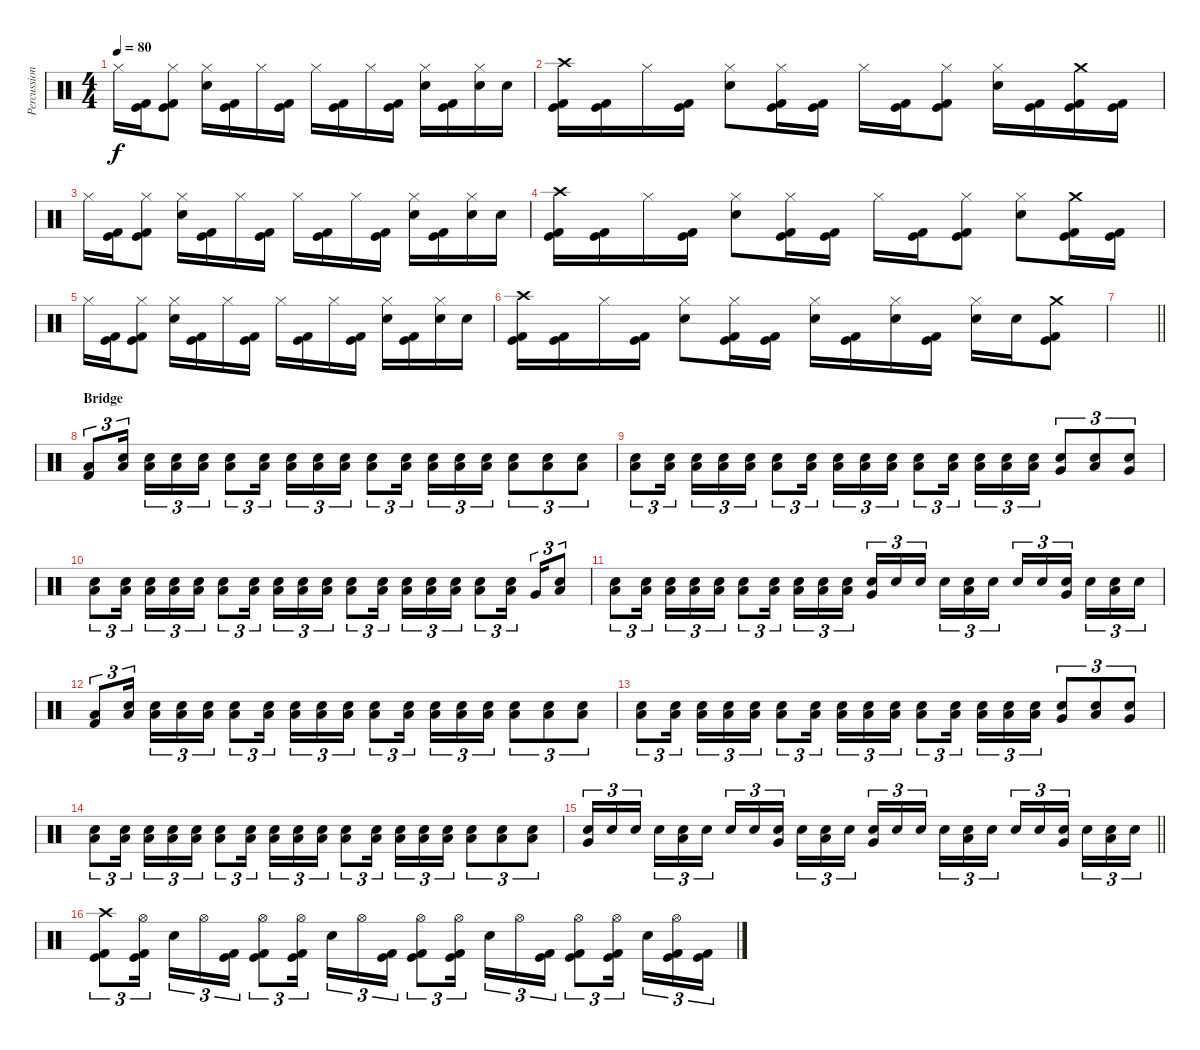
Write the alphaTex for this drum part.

\track ("Percussion" "Percussion") {instrument percussion}
\staff {score}
\articulation defaults
\ts (4 4)
\tempo 80
\clef neutral
\ks c "Hi-Hat (closed)".16{dy f}
("Kick (hit)" "Kick (hit) 2").16 ("Hi-Hat (closed)" "Kick (hit)" "Kick (hit) 2").8 ("Hi-Hat (closed)" "Electric Snare (hit)").16 ("Kick (hit)" "Kick (hit) 2").16 "Hi-Hat (closed)".16 ("Kick (hit)" "Kick (hit) 2").16 "Hi-Hat (closed)".16 ("Kick (hit)" "Kick (hit) 2").16 "Hi-Hat (closed)".16 ("Kick (hit)" "Kick (hit) 2").16 ("Hi-Hat (closed)" "Electric Snare (hit)").16 ("Kick (hit)" "Kick (hit) 2").16 ("Hi-Hat (closed)" "Electric Snare (hit)").16 "Electric Snare (hit)".16 |
("Crash high (hit)" "Kick (hit)" "Kick (hit) 2").16 ("Kick (hit)" "Kick (hit) 2").16 "Hi-Hat (closed)".16 ("Kick (hit)" "Kick (hit) 2").16 ("Hi-Hat (closed)" "Electric Snare (hit)").8 ("Hi-Hat (closed)" "Kick (hit)" "Kick (hit) 2").16 ("Kick (hit)" "Kick (hit) 2").16 "Hi-Hat (closed)".16 ("Kick (hit)" "Kick (hit) 2").16 ("Hi-Hat (closed)" "Kick (hit)" "Kick (hit) 2").8 ("Hi-Hat (closed)" "Electric Snare (hit)").16 ("Kick (hit)" "Kick (hit) 2").16 ("Crash medium (hit)" "Kick (hit)" "Kick (hit) 2").16 ("Kick (hit)" "Kick (hit) 2").16 |
"Hi-Hat (closed)".16 ("Kick (hit)" "Kick (hit) 2").16 ("Hi-Hat (closed)" "Kick (hit)" "Kick (hit) 2").8 ("Hi-Hat (closed)" "Electric Snare (hit)").16 ("Kick (hit)" "Kick (hit) 2").16 "Hi-Hat (closed)".16 ("Kick (hit)" "Kick (hit) 2").16 "Hi-Hat (closed)".16 ("Kick (hit)" "Kick (hit) 2").16 "Hi-Hat (closed)".16 ("Kick (hit)" "Kick (hit) 2").16 ("Hi-Hat (closed)" "Electric Snare (hit)").16 ("Kick (hit)" "Kick (hit) 2").16 ("Hi-Hat (closed)" "Electric Snare (hit)").16 "Electric Snare (hit)".16 |
("Crash high (hit)" "Kick (hit)" "Kick (hit) 2").16 ("Kick (hit)" "Kick (hit) 2").16 "Hi-Hat (closed)".16 ("Kick (hit)" "Kick (hit) 2").16 ("Hi-Hat (closed)" "Electric Snare (hit)").8 ("Hi-Hat (closed)" "Kick (hit)" "Kick (hit) 2").16 ("Kick (hit)" "Kick (hit) 2").16 "Hi-Hat (closed)".16 ("Kick (hit)" "Kick (hit) 2").16 ("Hi-Hat (closed)" "Kick (hit)" "Kick (hit) 2").8 ("Hi-Hat (closed)" "Electric Snare (hit)").8 ("Crash medium (hit)" "Kick (hit)" "Kick (hit) 2").16 ("Kick (hit)" "Kick (hit) 2").16 |
"Hi-Hat (closed)".16 ("Kick (hit)" "Kick (hit) 2").16 ("Hi-Hat (closed)" "Kick (hit)" "Kick (hit) 2").8 ("Hi-Hat (closed)" "Electric Snare (hit)").16 ("Kick (hit)" "Kick (hit) 2").16 "Hi-Hat (closed)".16 ("Kick (hit)" "Kick (hit) 2").16 "Hi-Hat (closed)".16 ("Kick (hit)" "Kick (hit) 2").16 "Hi-Hat (closed)".16 ("Kick (hit)" "Kick (hit) 2").16 ("Hi-Hat (closed)" "Electric Snare (hit)").16 ("Kick (hit)" "Kick (hit) 2").16 ("Hi-Hat (closed)" "Electric Snare (hit)").16 "Electric Snare (hit)".16 |
("Crash high (hit)" "Kick (hit)" "Kick (hit) 2").16 ("Kick (hit)" "Kick (hit) 2").16 "Hi-Hat (closed)".16 ("Kick (hit)" "Kick (hit) 2").16 ("Hi-Hat (closed)" "Electric Snare (hit)").8 ("Hi-Hat (closed)" "Kick (hit)" "Kick (hit) 2").16 ("Kick (hit)" "Kick (hit) 2").16 ("Hi-Hat (closed)" "Electric Snare (hit)").16 ("Kick (hit)" "Kick (hit) 2").16 ("Hi-Hat (closed)" "Electric Snare (hit)").16 ("Kick (hit)" "Kick (hit) 2").16 ("Hi-Hat (closed)" "Electric Snare (hit)").16 "Electric Snare (hit)".16 ("Crash medium (hit)" "Kick (hit)" "Kick (hit) 2").8 |
\barLineRight lightlight
|
\section ("" "Bridge")
("Low Floor Tom (hit)" "Kick (hit) 2").8{tu (3 2)} ("Electric Snare (hit)" "Low Floor Tom (hit)").16{tu (3 2) beam splitsecondary} ("Electric Snare (hit)" "Low Floor Tom (hit)").16{tu (3 2)} ("Electric Snare (hit)" "Low Floor Tom (hit)").16{tu (3 2)} ("Electric Snare (hit)" "Low Floor Tom (hit)").16{tu (3 2)} ("Electric Snare (hit)" "Low Floor Tom (hit)").8{tu (3 2)} ("Electric Snare (hit)" "Low Floor Tom (hit)").16{tu (3 2) beam splitsecondary} ("Electric Snare (hit)" "Low Floor Tom (hit)").16{tu (3 2)} ("Electric Snare (hit)" "Low Floor Tom (hit)").16{tu (3 2)} ("Electric Snare (hit)" "Low Floor Tom (hit)").16{tu (3 2)} ("Electric Snare (hit)" "Low Floor Tom (hit)").8{tu (3 2)} ("Electric Snare (hit)" "Low Floor Tom (hit)").16{tu (3 2) beam splitsecondary} ("Electric Snare (hit)" "Low Floor Tom (hit)").16{tu (3 2)} ("Electric Snare (hit)" "Low Floor Tom (hit)").16{tu (3 2)} ("Electric Snare (hit)" "Low Floor Tom (hit)").16{tu (3 2)} ("Low Tom (hit)" "Electric Snare (hit)").8{tu (3 2)} ("Electric Snare (hit)" "Low Floor Tom (hit)").8{tu (3 2)} ("Low Tom (hit)" "Electric Snare (hit)").8{tu (3 2)} |
("Low Tom (hit)" "Electric Snare (hit)").8{tu (3 2)} ("Electric Snare (hit)" "Low Floor Tom (hit)").16{tu (3 2) beam splitsecondary} ("Electric Snare (hit)" "Low Floor Tom (hit)").16{tu (3 2)} ("Electric Snare (hit)" "Low Floor Tom (hit)").16{tu (3 2)} ("Electric Snare (hit)" "Low Floor Tom (hit)").16{tu (3 2)} ("Electric Snare (hit)" "Low Floor Tom (hit)").8{tu (3 2)} ("Electric Snare (hit)" "Low Floor Tom (hit)").16{tu (3 2) beam splitsecondary} ("Electric Snare (hit)" "Low Floor Tom (hit)").16{tu (3 2)} ("Electric Snare (hit)" "Low Floor Tom (hit)").16{tu (3 2)} ("Electric Snare (hit)" "Low Floor Tom (hit)").16{tu (3 2)} ("Electric Snare (hit)" "Low Floor Tom (hit)").8{tu (3 2)} ("Electric Snare (hit)" "Low Floor Tom (hit)").16{tu (3 2) beam splitsecondary} ("Electric Snare (hit)" "Low Floor Tom (hit)").16{tu (3 2)} ("Electric Snare (hit)" "Low Floor Tom (hit)").16{tu (3 2)} ("Electric Snare (hit)" "Low Floor Tom (hit)").16{tu (3 2)} ("Very Low Tom (hit)" "Electric Snare (hit)").8{tu (3 2)} ("Low Tom (hit)" "Electric Snare (hit)").8{tu (3 2)} ("Very Low Tom (hit)" "Electric Snare (hit)").8{tu (3 2)} |
("Low Tom (hit)" "Electric Snare (hit)").8{tu (3 2)} ("Electric Snare (hit)" "Low Floor Tom (hit)").16{tu (3 2) beam splitsecondary} ("Electric Snare (hit)" "Low Floor Tom (hit)").16{tu (3 2)} ("Electric Snare (hit)" "Low Floor Tom (hit)").16{tu (3 2)} ("Electric Snare (hit)" "Low Floor Tom (hit)").16{tu (3 2)} ("Electric Snare (hit)" "Low Floor Tom (hit)").8{tu (3 2)} ("Electric Snare (hit)" "Low Floor Tom (hit)").16{tu (3 2) beam splitsecondary} ("Electric Snare (hit)" "Low Floor Tom (hit)").16{tu (3 2)} ("Electric Snare (hit)" "Low Floor Tom (hit)").16{tu (3 2)} ("Electric Snare (hit)" "Low Floor Tom (hit)").16{tu (3 2)} ("Electric Snare (hit)" "Low Floor Tom (hit)").8{tu (3 2)} ("Electric Snare (hit)" "Low Floor Tom (hit)").16{tu (3 2) beam splitsecondary} ("Electric Snare (hit)" "Low Floor Tom (hit)").16{tu (3 2)} ("Electric Snare (hit)" "Low Floor Tom (hit)").16{tu (3 2)} ("Electric Snare (hit)" "Low Floor Tom (hit)").16{tu (3 2)} ("Low Tom (hit)" "Electric Snare (hit)").8{tu (3 2)} ("Electric Snare (hit)" "Low Floor Tom (hit)").16{tu (3 2) beam splitsecondary} "Very Low Tom (hit)".16{tu (3 2)} ("Low Tom (hit)" "Electric Snare (hit)").8{tu (3 2)} |
("Electric Snare (hit)" "Low Floor Tom (hit)").8{tu (3 2)} ("Electric Snare (hit)" "Low Floor Tom (hit)").16{tu (3 2) beam splitsecondary} ("Electric Snare (hit)" "Low Floor Tom (hit)").16{tu (3 2)} ("Electric Snare (hit)" "Low Floor Tom (hit)").16{tu (3 2)} ("Electric Snare (hit)" "Low Floor Tom (hit)").16{tu (3 2)} ("Electric Snare (hit)" "Low Floor Tom (hit)").8{tu (3 2)} ("Electric Snare (hit)" "Low Floor Tom (hit)").16{tu (3 2) beam splitsecondary} ("Electric Snare (hit)" "Low Floor Tom (hit)").16{tu (3 2)} ("Electric Snare (hit)" "Low Floor Tom (hit)").16{tu (3 2)} ("Electric Snare (hit)" "Low Floor Tom (hit)").16{tu (3 2)} ("Very Low Tom (hit)" "Electric Snare (hit)").16{tu (3 2)} "Electric Snare (hit)".16{tu (3 2)} "Electric Snare (hit)".16{tu (3 2) beam splitsecondary} "Electric Snare (hit)".16{tu (3 2)} ("Low Tom (hit)" "Electric Snare (hit)").16{tu (3 2)} "Electric Snare (hit)".16{tu (3 2)} "Electric Snare (hit)".16{tu (3 2)} "Electric Snare (hit)".16{tu (3 2)} ("Very Low Tom (hit)" "Electric Snare (hit)").16{tu (3 2) beam splitsecondary} "Electric Snare (hit)".16{tu (3 2)} ("Low Tom (hit)" "Electric Snare (hit)").16{tu (3 2)} "Electric Snare (hit)".16{tu (3 2)} |
("Low Floor Tom (hit)" "Kick (hit) 2").8{tu (3 2)} ("Electric Snare (hit)" "Low Floor Tom (hit)").16{tu (3 2) beam splitsecondary} ("Electric Snare (hit)" "Low Floor Tom (hit)").16{tu (3 2)} ("Electric Snare (hit)" "Low Floor Tom (hit)").16{tu (3 2)} ("Electric Snare (hit)" "Low Floor Tom (hit)").16{tu (3 2)} ("Electric Snare (hit)" "Low Floor Tom (hit)").8{tu (3 2)} ("Electric Snare (hit)" "Low Floor Tom (hit)").16{tu (3 2) beam splitsecondary} ("Electric Snare (hit)" "Low Floor Tom (hit)").16{tu (3 2)} ("Electric Snare (hit)" "Low Floor Tom (hit)").16{tu (3 2)} ("Electric Snare (hit)" "Low Floor Tom (hit)").16{tu (3 2)} ("Electric Snare (hit)" "Low Floor Tom (hit)").8{tu (3 2)} ("Electric Snare (hit)" "Low Floor Tom (hit)").16{tu (3 2) beam splitsecondary} ("Electric Snare (hit)" "Low Floor Tom (hit)").16{tu (3 2)} ("Electric Snare (hit)" "Low Floor Tom (hit)").16{tu (3 2)} ("Electric Snare (hit)" "Low Floor Tom (hit)").16{tu (3 2)} ("Low Tom (hit)" "Electric Snare (hit)").8{tu (3 2)} ("Electric Snare (hit)" "Low Floor Tom (hit)").8{tu (3 2)} ("Low Tom (hit)" "Electric Snare (hit)").8{tu (3 2)} |
("Low Tom (hit)" "Electric Snare (hit)").8{tu (3 2)} ("Electric Snare (hit)" "Low Floor Tom (hit)").16{tu (3 2) beam splitsecondary} ("Electric Snare (hit)" "Low Floor Tom (hit)").16{tu (3 2)} ("Electric Snare (hit)" "Low Floor Tom (hit)").16{tu (3 2)} ("Electric Snare (hit)" "Low Floor Tom (hit)").16{tu (3 2)} ("Electric Snare (hit)" "Low Floor Tom (hit)").8{tu (3 2)} ("Electric Snare (hit)" "Low Floor Tom (hit)").16{tu (3 2) beam splitsecondary} ("Electric Snare (hit)" "Low Floor Tom (hit)").16{tu (3 2)} ("Electric Snare (hit)" "Low Floor Tom (hit)").16{tu (3 2)} ("Electric Snare (hit)" "Low Floor Tom (hit)").16{tu (3 2)} ("Electric Snare (hit)" "Low Floor Tom (hit)").8{tu (3 2)} ("Electric Snare (hit)" "Low Floor Tom (hit)").16{tu (3 2) beam splitsecondary} ("Electric Snare (hit)" "Low Floor Tom (hit)").16{tu (3 2)} ("Electric Snare (hit)" "Low Floor Tom (hit)").16{tu (3 2)} ("Electric Snare (hit)" "Low Floor Tom (hit)").16{tu (3 2)} ("Very Low Tom (hit)" "Electric Snare (hit)").8{tu (3 2)} ("Low Tom (hit)" "Electric Snare (hit)").8{tu (3 2)} ("Very Low Tom (hit)" "Electric Snare (hit)").8{tu (3 2)} |
("Low Tom (hit)" "Electric Snare (hit)").8{tu (3 2)} ("Electric Snare (hit)" "Low Floor Tom (hit)").16{tu (3 2) beam splitsecondary} ("Electric Snare (hit)" "Low Floor Tom (hit)").16{tu (3 2)} ("Electric Snare (hit)" "Low Floor Tom (hit)").16{tu (3 2)} ("Electric Snare (hit)" "Low Floor Tom (hit)").16{tu (3 2)} ("Electric Snare (hit)" "Low Floor Tom (hit)").8{tu (3 2)} ("Electric Snare (hit)" "Low Floor Tom (hit)").16{tu (3 2) beam splitsecondary} ("Electric Snare (hit)" "Low Floor Tom (hit)").16{tu (3 2)} ("Electric Snare (hit)" "Low Floor Tom (hit)").16{tu (3 2)} ("Electric Snare (hit)" "Low Floor Tom (hit)").16{tu (3 2)} ("Electric Snare (hit)" "Low Floor Tom (hit)").8{tu (3 2)} ("Electric Snare (hit)" "Low Floor Tom (hit)").16{tu (3 2) beam splitsecondary} ("Electric Snare (hit)" "Low Floor Tom (hit)").16{tu (3 2)} ("Electric Snare (hit)" "Low Floor Tom (hit)").16{tu (3 2)} ("Electric Snare (hit)" "Low Floor Tom (hit)").16{tu (3 2)} ("Low Tom (hit)" "Electric Snare (hit)").8{tu (3 2)} ("Electric Snare (hit)" "Low Floor Tom (hit)").8{tu (3 2)} ("Low Tom (hit)" "Electric Snare (hit)").8{tu (3 2)} |
\barLineRight lightlight
("Very Low Tom (hit)" "Electric Snare (hit)").16{tu (3 2)} "Electric Snare (hit)".16{tu (3 2)} "Electric Snare (hit)".16{tu (3 2) beam splitsecondary} "Electric Snare (hit)".16{tu (3 2)} ("Low Tom (hit)" "Electric Snare (hit)").16{tu (3 2)} "Electric Snare (hit)".16{tu (3 2)} "Electric Snare (hit)".16{tu (3 2)} "Electric Snare (hit)".16{tu (3 2)} ("Very Low Tom (hit)" "Electric Snare (hit)").16{tu (3 2) beam splitsecondary} "Electric Snare (hit)".16{tu (3 2)} ("Low Tom (hit)" "Electric Snare (hit)").16{tu (3 2)} "Electric Snare (hit)".16{tu (3 2)} ("Very Low Tom (hit)" "Electric Snare (hit)").16{tu (3 2)} "Electric Snare (hit)".16{tu (3 2)} "Electric Snare (hit)".16{tu (3 2) beam splitsecondary} "Electric Snare (hit)".16{tu (3 2)} ("Low Tom (hit)" "Electric Snare (hit)").16{tu (3 2)} "Electric Snare (hit)".16{tu (3 2)} "Electric Snare (hit)".16{tu (3 2)} "Electric Snare (hit)".16{tu (3 2)} ("Very Low Tom (hit)" "Electric Snare (hit)").16{tu (3 2) beam splitsecondary} "Electric Snare (hit)".16{tu (3 2)} ("Low Tom (hit)" "Electric Snare (hit)").16{tu (3 2)} "Electric Snare (hit)".16{tu (3 2)} |
\section ("" "")
("Crash high (hit)" "Kick (hit)" "Kick (hit) 2").8{tu (3 2)} ("Hi-Hat (open)" "Kick (hit)" "Kick (hit) 2").16{tu (3 2) beam splitsecondary} "Electric Snare (hit)".16{tu (3 2)} "Hi-Hat (open)".16{tu (3 2)} ("Kick (hit)" "Kick (hit) 2").16{tu (3 2)} ("Hi-Hat (open)" "Kick (hit)" "Kick (hit) 2").8{tu (3 2)} ("Hi-Hat (open)" "Kick (hit)" "Kick (hit) 2").16{tu (3 2) beam splitsecondary} "Electric Snare (hit)".16{tu (3 2)} "Hi-Hat (open)".16{tu (3 2)} ("Kick (hit)" "Kick (hit) 2").16{tu (3 2)} ("Hi-Hat (open)" "Kick (hit)" "Kick (hit) 2").8{tu (3 2)} ("Hi-Hat (open)" "Kick (hit)" "Kick (hit) 2").16{tu (3 2) beam splitsecondary} "Electric Snare (hit)".16{tu (3 2)} "Hi-Hat (open)".16{tu (3 2)} ("Kick (hit)" "Kick (hit) 2").16{tu (3 2)} ("Hi-Hat (open)" "Kick (hit)" "Kick (hit) 2").8{tu (3 2)} ("Hi-Hat (open)" "Kick (hit)" "Kick (hit) 2").16{tu (3 2) beam splitsecondary} "Electric Snare (hit)".16{tu (3 2)} ("Hi-Hat (open)" "Kick (hit)" "Kick (hit) 2").16{tu (3 2)} ("Kick (hit)" "Kick (hit) 2").16{tu (3 2)}
